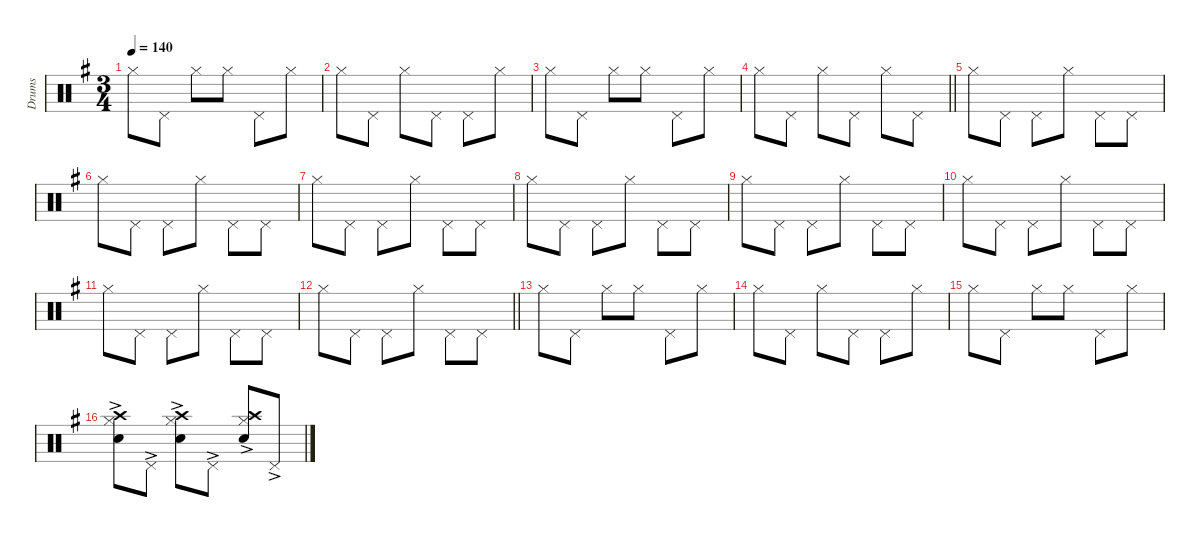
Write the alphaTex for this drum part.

\defaultSystemsLayout 8
\hideDynamics
\bracketExtendMode groupsimilarinstruments
\firstSystemTrackNameMode fullname
\otherSystemsTrackNameOrientation horizontal
\track ("Drums" "drm.") {defaultSystemsLayout 4 instrument percussion}
\staff {score}
\articulation defaults
\ts (3 4)
\tempo 140
\clef neutral
\ks g "Hi-Hat (closed)"{acc forcenatural}.8{dy mp beam Down} "Pedal Hi-Hat (hit)"{acc forcenatural}.8{beam Down} "Hi-Hat (closed)"{acc forcenatural}.8{beam Down} "Hi-Hat (closed)"{acc forcenatural}.8{beam Down} "Pedal Hi-Hat (hit)"{acc forcenatural}.8{beam Down} "Hi-Hat (closed)"{acc forcenatural}.8{beam Down}
|
"Hi-Hat (closed)"{acc forcenatural}.8{beam Down} "Pedal Hi-Hat (hit)"{acc forcenatural}.8{beam Down} "Hi-Hat (closed)"{acc forcenatural}.8{beam Down} "Pedal Hi-Hat (hit)"{acc forcenatural}.8{beam Down} "Pedal Hi-Hat (hit)"{acc forcenatural}.8{beam Down} "Hi-Hat (closed)"{acc forcenatural}.8{beam Down} |
"Hi-Hat (closed)"{acc forcenatural}.8{beam Down} "Pedal Hi-Hat (hit)"{acc forcenatural}.8{beam Down} "Hi-Hat (closed)"{acc forcenatural}.8{beam Down} "Hi-Hat (closed)"{acc forcenatural}.8{beam Down} "Pedal Hi-Hat (hit)"{acc forcenatural}.8{beam Down} "Hi-Hat (closed)"{acc forcenatural}.8{beam Down} |
\barLineRight lightlight "Hi-Hat (closed)"{acc forcenatural}.8{beam Down} "Pedal Hi-Hat (hit)"{acc forcenatural}.8{beam Down} "Hi-Hat (closed)"{acc forcenatural}.8{beam Down} "Pedal Hi-Hat (hit)"{acc forcenatural}.8{beam Down} "Hi-Hat (closed)"{acc forcenatural}.8{beam Down} "Pedal Hi-Hat (hit)"{acc forcenatural}.8{beam Down}
|
"Hi-Hat (closed)"{acc forcenatural}.8{dy f beam Down} "Pedal Hi-Hat (hit)"{acc forcenatural}.8{beam Down} "Pedal Hi-Hat (hit)"{acc forcenatural}.8{beam Down} "Hi-Hat (closed)"{acc forcenatural}.8{beam Down} "Pedal Hi-Hat (hit)"{acc forcenatural}.8{beam Down} "Pedal Hi-Hat (hit)"{acc forcenatural}.8{beam Down} |
"Hi-Hat (closed)"{acc forcenatural}.8{beam Down} "Pedal Hi-Hat (hit)"{acc forcenatural}.8{beam Down} "Pedal Hi-Hat (hit)"{acc forcenatural}.8{beam Down} "Hi-Hat (closed)"{acc forcenatural}.8{beam Down} "Pedal Hi-Hat (hit)"{acc forcenatural}.8{beam Down} "Pedal Hi-Hat (hit)"{acc forcenatural}.8{beam Down} |
"Hi-Hat (closed)"{acc forcenatural}.8{beam Down} "Pedal Hi-Hat (hit)"{acc forcenatural}.8{beam Down} "Pedal Hi-Hat (hit)"{acc forcenatural}.8{beam Down} "Hi-Hat (closed)"{acc forcenatural}.8{beam Down} "Pedal Hi-Hat (hit)"{acc forcenatural}.8{beam Down} "Pedal Hi-Hat (hit)"{acc forcenatural}.8{beam Down} |
"Hi-Hat (closed)"{acc forcenatural}.8{beam Down} "Pedal Hi-Hat (hit)"{acc forcenatural}.8{beam Down} "Pedal Hi-Hat (hit)"{acc forcenatural}.8{beam Down} "Hi-Hat (closed)"{acc forcenatural}.8{beam Down} "Pedal Hi-Hat (hit)"{acc forcenatural}.8{beam Down} "Pedal Hi-Hat (hit)"{acc forcenatural}.8{beam Down} |
"Hi-Hat (closed)"{acc forcenatural}.8{beam Down} "Pedal Hi-Hat (hit)"{acc forcenatural}.8{beam Down} "Pedal Hi-Hat (hit)"{acc forcenatural}.8{beam Down} "Hi-Hat (closed)"{acc forcenatural}.8{beam Down} "Pedal Hi-Hat (hit)"{acc forcenatural}.8{beam Down} "Pedal Hi-Hat (hit)"{acc forcenatural}.8{beam Down} |
"Hi-Hat (closed)"{acc forcenatural}.8{beam Down} "Pedal Hi-Hat (hit)"{acc forcenatural}.8{beam Down} "Pedal Hi-Hat (hit)"{acc forcenatural}.8{beam Down} "Hi-Hat (closed)"{acc forcenatural}.8{beam Down} "Pedal Hi-Hat (hit)"{acc forcenatural}.8{beam Down} "Pedal Hi-Hat (hit)"{acc forcenatural}.8{beam Down} |
"Hi-Hat (closed)"{acc forcenatural}.8{beam Down} "Pedal Hi-Hat (hit)"{acc forcenatural}.8{beam Down} "Pedal Hi-Hat (hit)"{acc forcenatural}.8{beam Down} "Hi-Hat (closed)"{acc forcenatural}.8{beam Down} "Pedal Hi-Hat (hit)"{acc forcenatural}.8{beam Down} "Pedal Hi-Hat (hit)"{acc forcenatural}.8{beam Down} |
\barLineRight lightlight "Hi-Hat (closed)"{acc forcenatural}.8{beam Down} "Pedal Hi-Hat (hit)"{acc forcenatural}.8{beam Down} "Pedal Hi-Hat (hit)"{acc forcenatural}.8{beam Down} "Hi-Hat (closed)"{acc forcenatural}.8{beam Down} "Pedal Hi-Hat (hit)"{acc forcenatural}.8{beam Down} "Pedal Hi-Hat (hit)"{acc forcenatural}.8{beam Down}
|
"Hi-Hat (closed)"{acc forcenatural}.8{beam Down} "Pedal Hi-Hat (hit)"{acc forcenatural}.8{beam Down} "Hi-Hat (closed)"{acc forcenatural}.8{beam Down} "Hi-Hat (closed)"{acc forcenatural}.8{beam Down} "Pedal Hi-Hat (hit)"{acc forcenatural}.8{beam Down} "Hi-Hat (closed)"{acc forcenatural}.8{beam Down} |
"Hi-Hat (closed)"{acc forcenatural}.8{beam Down} "Pedal Hi-Hat (hit)"{acc forcenatural}.8{beam Down} "Hi-Hat (closed)"{acc forcenatural}.8{beam Down} "Pedal Hi-Hat (hit)"{acc forcenatural}.8{beam Down} "Pedal Hi-Hat (hit)"{acc forcenatural}.8{beam Down} "Hi-Hat (closed)"{acc forcenatural}.8{beam Down} |
"Hi-Hat (closed)"{acc forcenatural}.8{beam Down} "Pedal Hi-Hat (hit)"{acc forcenatural}.8{beam Down} "Hi-Hat (closed)"{acc forcenatural}.8{beam Down} "Hi-Hat (closed)"{acc forcenatural}.8{beam Down} "Pedal Hi-Hat (hit)"{acc forcenatural}.8{beam Down} "Hi-Hat (closed)"{acc forcenatural}.8{beam Down} |
("Hi-Hat (closed)"{ac acc forcenatural} "Snare (hit) 2"{ac acc forcenatural} "Crash high (hit)"{ac acc forcenatural}).8{beam Down} "Pedal Hi-Hat (hit)"{ac acc forcenatural}.8{beam Down} ("Hi-Hat (closed)"{ac acc forcenatural} "Snare (hit) 2"{ac acc forcenatural} "Crash high (hit)"{ac acc forcenatural}).8{beam Down} "Pedal Hi-Hat (hit)"{ac acc forcenatural}.8{beam Down} ("Hi-Hat (closed)"{ac acc forcenatural} "Snare (hit) 2"{ac acc forcenatural} "Crash high (hit)"{ac acc forcenatural}).8{beam Up} "Pedal Hi-Hat (hit)"{ac acc forcenatural}.8{beam Up}
